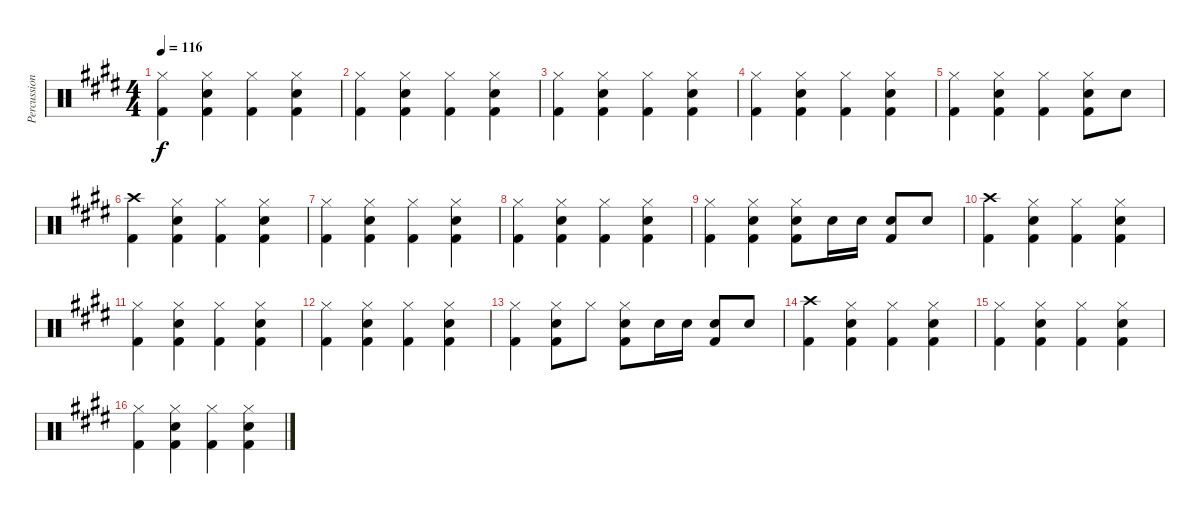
\track ("Percussion" "Percussion") {instrument percussion}
\staff {score}
\articulation defaults
\ts (4 4)
\tempo 116
\clef neutral
\ks e
("Hi-Hat (closed)" "Kick (hit) 2").4{dy f} ("Hi-Hat (closed)" "Snare (hit) 2" "Kick (hit) 2").4 ("Hi-Hat (closed)" "Kick (hit) 2").4 ("Hi-Hat (closed)" "Snare (hit) 2" "Kick (hit) 2").4 |
("Hi-Hat (closed)" "Kick (hit) 2").4 ("Hi-Hat (closed)" "Snare (hit) 2" "Kick (hit) 2").4 ("Hi-Hat (closed)" "Kick (hit) 2").4 ("Hi-Hat (closed)" "Snare (hit) 2" "Kick (hit) 2").4 |
("Hi-Hat (closed)" "Kick (hit) 2").4 ("Hi-Hat (closed)" "Snare (hit) 2" "Kick (hit) 2").4 ("Hi-Hat (closed)" "Kick (hit) 2").4 ("Hi-Hat (closed)" "Snare (hit) 2" "Kick (hit) 2").4 |
("Hi-Hat (closed)" "Kick (hit) 2").4 ("Hi-Hat (closed)" "Snare (hit) 2" "Kick (hit) 2").4 ("Hi-Hat (closed)" "Kick (hit) 2").4 ("Hi-Hat (closed)" "Snare (hit) 2" "Kick (hit) 2").4 |
("Hi-Hat (closed)" "Kick (hit) 2").4 ("Hi-Hat (closed)" "Snare (hit) 2" "Kick (hit) 2").4 ("Hi-Hat (closed)" "Kick (hit) 2").4 ("Hi-Hat (closed)" "Snare (hit) 2" "Kick (hit) 2").8 "Snare (hit) 2".8 |
("Crash high (hit)" "Kick (hit) 2").4 ("Hi-Hat (closed)" "Snare (hit) 2" "Kick (hit) 2").4 ("Hi-Hat (closed)" "Kick (hit) 2").4 ("Hi-Hat (closed)" "Snare (hit) 2" "Kick (hit) 2").4 |
("Hi-Hat (closed)" "Kick (hit) 2").4 ("Hi-Hat (closed)" "Snare (hit) 2" "Kick (hit) 2").4 ("Hi-Hat (closed)" "Kick (hit) 2").4 ("Hi-Hat (closed)" "Snare (hit) 2" "Kick (hit) 2").4 |
("Hi-Hat (closed)" "Kick (hit) 2").4 ("Hi-Hat (closed)" "Snare (hit) 2" "Kick (hit) 2").4 ("Hi-Hat (closed)" "Kick (hit) 2").4 ("Hi-Hat (closed)" "Snare (hit) 2" "Kick (hit) 2").4 |
("Hi-Hat (closed)" "Kick (hit) 2").4 ("Hi-Hat (closed)" "Snare (hit) 2" "Kick (hit) 2").4 ("Hi-Hat (closed)" "Snare (hit) 2" "Kick (hit) 2").8 "Snare (hit) 2".16 "Snare (hit) 2".16 ("Snare (hit) 2" "Kick (hit) 2").8 "Snare (hit) 2".8 |
("Crash high (hit)" "Kick (hit) 2").4 ("Hi-Hat (closed)" "Snare (hit) 2" "Kick (hit) 2").4 ("Hi-Hat (closed)" "Kick (hit) 2").4 ("Hi-Hat (closed)" "Snare (hit) 2" "Kick (hit) 2").4 |
("Hi-Hat (closed)" "Kick (hit) 2").4 ("Hi-Hat (closed)" "Snare (hit) 2" "Kick (hit) 2").4 ("Hi-Hat (closed)" "Kick (hit) 2").4 ("Hi-Hat (closed)" "Snare (hit) 2" "Kick (hit) 2").4 |
("Hi-Hat (closed)" "Kick (hit) 2").4 ("Hi-Hat (closed)" "Snare (hit) 2" "Kick (hit) 2").4 ("Hi-Hat (closed)" "Kick (hit) 2").4 ("Hi-Hat (closed)" "Snare (hit) 2" "Kick (hit) 2").4 |
("Hi-Hat (closed)" "Kick (hit) 2").4 ("Hi-Hat (closed)" "Snare (hit) 2" "Kick (hit) 2").8 "Hi-Hat (closed)".8 ("Hi-Hat (closed)" "Snare (hit) 2" "Kick (hit) 2").8 "Snare (hit) 2".16 "Snare (hit) 2".16 ("Snare (hit) 2" "Kick (hit) 2").8 "Snare (hit) 2".8 |
("Crash high (hit)" "Kick (hit) 2").4 ("Hi-Hat (closed)" "Snare (hit) 2" "Kick (hit) 2").4 ("Hi-Hat (closed)" "Kick (hit) 2").4 ("Hi-Hat (closed)" "Snare (hit) 2" "Kick (hit) 2").4 |
("Hi-Hat (closed)" "Kick (hit) 2").4 ("Hi-Hat (closed)" "Snare (hit) 2" "Kick (hit) 2").4 ("Hi-Hat (closed)" "Kick (hit) 2").4 ("Hi-Hat (closed)" "Snare (hit) 2" "Kick (hit) 2").4 |
("Hi-Hat (closed)" "Kick (hit) 2").4 ("Hi-Hat (closed)" "Snare (hit) 2" "Kick (hit) 2").4 ("Hi-Hat (closed)" "Kick (hit) 2").4 ("Hi-Hat (closed)" "Snare (hit) 2" "Kick (hit) 2").4
